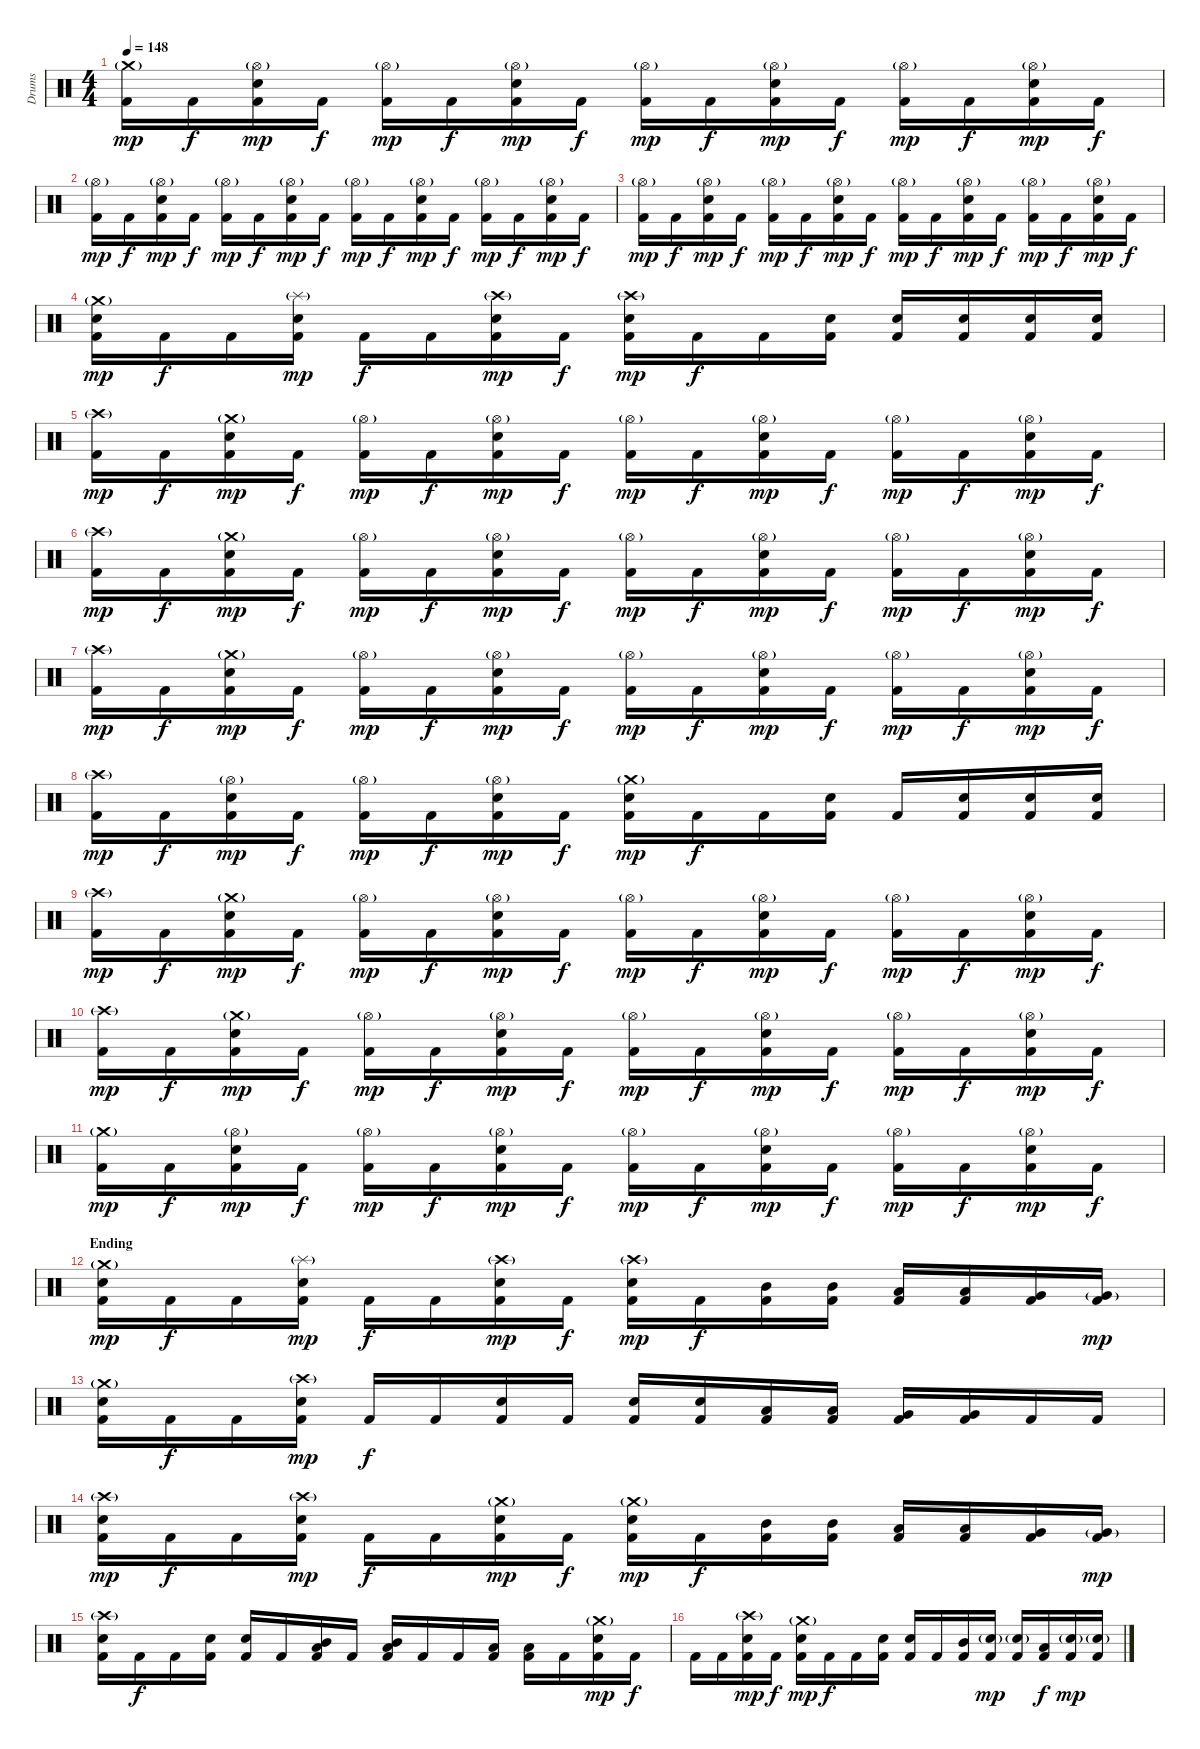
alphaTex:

\track ("Drums" "Drums") {instrument percussion}
\staff {score}
\articulation defaults
\ts (4 4)
\tempo 148
\clef neutral
\ks c
("Crash medium (hit)"{g} "Kick (hit) 2").16{dy mp} "Kick (hit) 2".16{dy f} ("Hi-Hat (open)"{g} "Snare (hit) 2" "Kick (hit) 2").16{dy mp} "Kick (hit) 2".16{dy f} ("Hi-Hat (open)"{g} "Kick (hit) 2").16{dy mp} "Kick (hit) 2".16{dy f} ("Hi-Hat (open)"{g} "Snare (hit) 2" "Kick (hit) 2").16{dy mp} "Kick (hit) 2".16{dy f} ("Hi-Hat (open)"{g} "Kick (hit) 2").16{dy mp} "Kick (hit) 2".16{dy f} ("Hi-Hat (open)"{g} "Snare (hit) 2" "Kick (hit) 2").16{dy mp} "Kick (hit) 2".16{dy f} ("Hi-Hat (open)"{g} "Kick (hit) 2").16{dy mp} "Kick (hit) 2".16{dy f} ("Hi-Hat (open)"{g} "Snare (hit) 2" "Kick (hit) 2").16{dy mp} "Kick (hit) 2".16{dy f} |
("Hi-Hat (open)"{g} "Kick (hit) 2").16{dy mp} "Kick (hit) 2".16{dy f} ("Hi-Hat (open)"{g} "Snare (hit) 2" "Kick (hit) 2").16{dy mp} "Kick (hit) 2".16{dy f} ("Hi-Hat (open)"{g} "Kick (hit) 2").16{dy mp} "Kick (hit) 2".16{dy f} ("Hi-Hat (open)"{g} "Snare (hit) 2" "Kick (hit) 2").16{dy mp} "Kick (hit) 2".16{dy f} ("Hi-Hat (open)"{g} "Kick (hit) 2").16{dy mp} "Kick (hit) 2".16{dy f} ("Hi-Hat (open)"{g} "Snare (hit) 2" "Kick (hit) 2").16{dy mp} "Kick (hit) 2".16{dy f} ("Hi-Hat (open)"{g} "Kick (hit) 2").16{dy mp} "Kick (hit) 2".16{dy f} ("Hi-Hat (open)"{g} "Snare (hit) 2" "Kick (hit) 2").16{dy mp} "Kick (hit) 2".16{dy f} |
("Hi-Hat (open)"{g} "Kick (hit) 2").16{dy mp} "Kick (hit) 2".16{dy f} ("Hi-Hat (open)"{g} "Snare (hit) 2" "Kick (hit) 2").16{dy mp} "Kick (hit) 2".16{dy f} ("Hi-Hat (open)"{g} "Kick (hit) 2").16{dy mp} "Kick (hit) 2".16{dy f} ("Hi-Hat (open)"{g} "Snare (hit) 2" "Kick (hit) 2").16{dy mp} "Kick (hit) 2".16{dy f} ("Hi-Hat (open)"{g} "Kick (hit) 2").16{dy mp} "Kick (hit) 2".16{dy f} ("Hi-Hat (open)"{g} "Snare (hit) 2" "Kick (hit) 2").16{dy mp} "Kick (hit) 2".16{dy f} ("Hi-Hat (open)"{g} "Kick (hit) 2").16{dy mp} "Kick (hit) 2".16{dy f} ("Hi-Hat (open)"{g} "Snare (hit) 2" "Kick (hit) 2").16{dy mp} "Kick (hit) 2".16{dy f} |
("Crash medium (hit)"{g} "Snare (hit) 2" "Kick (hit) 2").16{dy mp} "Kick (hit) 2".16{dy f} "Kick (hit) 2".16 ("Splash (hit)"{g} "Snare (hit) 2" "Kick (hit) 2").16{dy mp} "Kick (hit) 2".16{dy f} "Kick (hit) 2".16 ("Crash high (hit)"{g} "Snare (hit) 2" "Kick (hit) 2").16{dy mp} "Kick (hit) 2".16{dy f} ("Crash high (hit)"{g} "Snare (hit) 2" "Kick (hit) 2").16{dy mp} "Kick (hit) 2".16{dy f} "Kick (hit) 2".16 ("Snare (hit) 2" "Kick (hit) 2").16 ("Snare (hit) 2" "Kick (hit) 2").16 ("Snare (hit) 2" "Kick (hit) 2").16 ("Snare (hit) 2" "Kick (hit) 2").16 ("Snare (hit) 2" "Kick (hit) 2").16 |
("Crash high (hit)"{g} "Kick (hit) 2").16{dy mp} "Kick (hit) 2".16{dy f} ("Crash medium (hit)"{g} "Snare (hit) 2" "Kick (hit) 2").16{dy mp} "Kick (hit) 2".16{dy f} ("Hi-Hat (open)"{g} "Kick (hit) 2").16{dy mp} "Kick (hit) 2".16{dy f} ("Hi-Hat (open)"{g} "Snare (hit) 2" "Kick (hit) 2").16{dy mp} "Kick (hit) 2".16{dy f} ("Hi-Hat (open)"{g} "Kick (hit) 2").16{dy mp} "Kick (hit) 2".16{dy f} ("Hi-Hat (open)"{g} "Snare (hit) 2" "Kick (hit) 2").16{dy mp} "Kick (hit) 2".16{dy f} ("Hi-Hat (open)"{g} "Kick (hit) 2").16{dy mp} "Kick (hit) 2".16{dy f} ("Hi-Hat (open)"{g} "Snare (hit) 2" "Kick (hit) 2").16{dy mp} "Kick (hit) 2".16{dy f} |
("Crash high (hit)"{g} "Kick (hit) 2").16{dy mp} "Kick (hit) 2".16{dy f} ("Crash medium (hit)"{g} "Snare (hit) 2" "Kick (hit) 2").16{dy mp} "Kick (hit) 2".16{dy f} ("Hi-Hat (open)"{g} "Kick (hit) 2").16{dy mp} "Kick (hit) 2".16{dy f} ("Hi-Hat (open)"{g} "Snare (hit) 2" "Kick (hit) 2").16{dy mp} "Kick (hit) 2".16{dy f} ("Hi-Hat (open)"{g} "Kick (hit) 2").16{dy mp} "Kick (hit) 2".16{dy f} ("Hi-Hat (open)"{g} "Snare (hit) 2" "Kick (hit) 2").16{dy mp} "Kick (hit) 2".16{dy f} ("Hi-Hat (open)"{g} "Kick (hit) 2").16{dy mp} "Kick (hit) 2".16{dy f} ("Hi-Hat (open)"{g} "Snare (hit) 2" "Kick (hit) 2").16{dy mp} "Kick (hit) 2".16{dy f} |
("Crash high (hit)"{g} "Kick (hit) 2").16{dy mp} "Kick (hit) 2".16{dy f} ("Crash medium (hit)"{g} "Snare (hit) 2" "Kick (hit) 2").16{dy mp} "Kick (hit) 2".16{dy f} ("Hi-Hat (open)"{g} "Kick (hit) 2").16{dy mp} "Kick (hit) 2".16{dy f} ("Hi-Hat (open)"{g} "Snare (hit) 2" "Kick (hit) 2").16{dy mp} "Kick (hit) 2".16{dy f} ("Hi-Hat (open)"{g} "Kick (hit) 2").16{dy mp} "Kick (hit) 2".16{dy f} ("Hi-Hat (open)"{g} "Snare (hit) 2" "Kick (hit) 2").16{dy mp} "Kick (hit) 2".16{dy f} ("Hi-Hat (open)"{g} "Kick (hit) 2").16{dy mp} "Kick (hit) 2".16{dy f} ("Hi-Hat (open)"{g} "Snare (hit) 2" "Kick (hit) 2").16{dy mp} "Kick (hit) 2".16{dy f} |
("Crash high (hit)"{g} "Kick (hit) 2").16{dy mp} "Kick (hit) 2".16{dy f} ("Hi-Hat (open)"{g} "Snare (hit) 2" "Kick (hit) 2").16{dy mp} "Kick (hit) 2".16{dy f} ("Hi-Hat (open)"{g} "Kick (hit) 2").16{dy mp} "Kick (hit) 2".16{dy f} ("Hi-Hat (open)"{g} "Snare (hit) 2" "Kick (hit) 2").16{dy mp} "Kick (hit) 2".16{dy f} ("Crash medium (hit)"{g} "Snare (hit) 2" "Kick (hit) 2").16{dy mp} "Kick (hit) 2".16{dy f} "Kick (hit) 2".16 ("Snare (hit) 2" "Kick (hit) 2").16 "Kick (hit) 2".16 ("Snare (hit) 2" "Kick (hit) 2").16 ("Snare (hit) 2" "Kick (hit) 2").16 ("Snare (hit) 2" "Kick (hit) 2").16 |
("Crash high (hit)"{g} "Kick (hit) 2").16{dy mp} "Kick (hit) 2".16{dy f} ("Crash medium (hit)"{g} "Snare (hit) 2" "Kick (hit) 2").16{dy mp} "Kick (hit) 2".16{dy f} ("Hi-Hat (open)"{g} "Kick (hit) 2").16{dy mp} "Kick (hit) 2".16{dy f} ("Hi-Hat (open)"{g} "Snare (hit) 2" "Kick (hit) 2").16{dy mp} "Kick (hit) 2".16{dy f} ("Hi-Hat (open)"{g} "Kick (hit) 2").16{dy mp} "Kick (hit) 2".16{dy f} ("Hi-Hat (open)"{g} "Snare (hit) 2" "Kick (hit) 2").16{dy mp} "Kick (hit) 2".16{dy f} ("Hi-Hat (open)"{g} "Kick (hit) 2").16{dy mp} "Kick (hit) 2".16{dy f} ("Hi-Hat (open)"{g} "Snare (hit) 2" "Kick (hit) 2").16{dy mp} "Kick (hit) 2".16{dy f} |
("Crash high (hit)"{g} "Kick (hit) 2").16{dy mp} "Kick (hit) 2".16{dy f} ("Crash medium (hit)"{g} "Snare (hit) 2" "Kick (hit) 2").16{dy mp} "Kick (hit) 2".16{dy f} ("Hi-Hat (open)"{g} "Kick (hit) 2").16{dy mp} "Kick (hit) 2".16{dy f} ("Hi-Hat (open)"{g} "Snare (hit) 2" "Kick (hit) 2").16{dy mp} "Kick (hit) 2".16{dy f} ("Hi-Hat (open)"{g} "Kick (hit) 2").16{dy mp} "Kick (hit) 2".16{dy f} ("Hi-Hat (open)"{g} "Snare (hit) 2" "Kick (hit) 2").16{dy mp} "Kick (hit) 2".16{dy f} ("Hi-Hat (open)"{g} "Kick (hit) 2").16{dy mp} "Kick (hit) 2".16{dy f} ("Hi-Hat (open)"{g} "Snare (hit) 2" "Kick (hit) 2").16{dy mp} "Kick (hit) 2".16{dy f} |
("Crash medium (hit)"{g} "Kick (hit) 2").16{dy mp} "Kick (hit) 2".16{dy f} ("Hi-Hat (open)"{g} "Snare (hit) 2" "Kick (hit) 2").16{dy mp} "Kick (hit) 2".16{dy f} ("Hi-Hat (open)"{g} "Kick (hit) 2").16{dy mp} "Kick (hit) 2".16{dy f} ("Hi-Hat (open)"{g} "Snare (hit) 2" "Kick (hit) 2").16{dy mp} "Kick (hit) 2".16{dy f} ("Hi-Hat (open)"{g} "Kick (hit) 2").16{dy mp} "Kick (hit) 2".16{dy f} ("Hi-Hat (open)"{g} "Snare (hit) 2" "Kick (hit) 2").16{dy mp} "Kick (hit) 2".16{dy f} ("Hi-Hat (open)"{g} "Kick (hit) 2").16{dy mp} "Kick (hit) 2".16{dy f} ("Hi-Hat (open)"{g} "Snare (hit) 2" "Kick (hit) 2").16{dy mp} "Kick (hit) 2".16{dy f} |
\section ("" "Ending")
("Crash medium (hit)"{g} "Snare (hit) 2" "Kick (hit) 2").16{dy mp} "Kick (hit) 2".16{dy f} "Kick (hit) 2".16 ("Splash (hit)"{g} "Snare (hit) 2" "Kick (hit) 2").16{dy mp} "Kick (hit) 2".16{dy f} "Kick (hit) 2".16 ("Crash high (hit)"{g} "Snare (hit) 2" "Kick (hit) 2").16{dy mp} "Kick (hit) 2".16{dy f} ("Crash high (hit)"{g} "Snare (hit) 2" "Kick (hit) 2").16{dy mp} "Kick (hit) 2".16{dy f} ("Mid Tom (hit)" "Kick (hit) 2").16 ("Mid Tom (hit)" "Kick (hit) 2").16 ("Low Tom (hit)" "Kick (hit) 2").16 ("Low Tom (hit)" "Kick (hit) 2").16 ("Very Low Tom (hit)" "Kick (hit) 2").16 ("Very Low Tom (hit)"{g} "Kick (hit) 2").16{dy mp} |
("Crash medium (hit)"{g} "Snare (hit) 2" "Kick (hit) 2").16 "Kick (hit) 2".16{dy f} "Kick (hit) 2".16 ("Crash high (hit)"{g} "Snare (hit) 2" "Kick (hit) 2").16{dy mp} "Kick (hit) 2".16{dy f} "Kick (hit) 2".16 ("Snare (hit) 2" "Kick (hit) 2").16 "Kick (hit) 2".16 ("Snare (hit) 2" "Kick (hit) 2").16 ("Snare (hit) 2" "Kick (hit) 2").16 ("Low Tom (hit)" "Kick (hit) 2").16 ("Low Tom (hit)" "Kick (hit) 2").16 ("Very Low Tom (hit)" "Kick (hit) 2").16 ("Very Low Tom (hit)" "Kick (hit) 2").16 "Kick (hit) 2".16 "Kick (hit) 2".16 |
("Crash high (hit)"{g} "Snare (hit) 2" "Kick (hit) 2").16{dy mp} "Kick (hit) 2".16{dy f} "Kick (hit) 2".16 ("Crash high (hit)"{g} "Snare (hit) 2" "Kick (hit) 2").16{dy mp} "Kick (hit) 2".16{dy f} "Kick (hit) 2".16 ("Crash medium (hit)"{g} "Snare (hit) 2" "Kick (hit) 2").16{dy mp} "Kick (hit) 2".16{dy f} ("Crash medium (hit)"{g} "Snare (hit) 2" "Kick (hit) 2").16{dy mp} "Kick (hit) 2".16{dy f} ("Mid Tom (hit)" "Kick (hit) 2").16 ("Mid Tom (hit)" "Kick (hit) 2").16 ("Low Tom (hit)" "Kick (hit) 2").16 ("Low Tom (hit)" "Kick (hit) 2").16 ("Very Low Tom (hit)" "Kick (hit) 2").16 ("Very Low Tom (hit)"{g} "Kick (hit) 2").16{dy mp} |
("Crash high (hit)"{g} "Snare (hit) 2" "Kick (hit) 2").16 "Kick (hit) 2".16{dy f} "Kick (hit) 2".16 ("Snare (hit) 2" "Kick (hit) 2").16 ("Snare (hit) 2" "Kick (hit) 2").16 "Kick (hit) 2".16 ("Mid Tom (hit)" "Low Tom (hit)" "Kick (hit) 2").16 "Kick (hit) 2".16 ("Mid Tom (hit)" "Low Tom (hit)" "Kick (hit) 2").16 "Kick (hit) 2".16 "Kick (hit) 2".16 ("Low Tom (hit)" "Kick (hit) 2").16 ("Low Tom (hit)" "Kick (hit) 2").16 "Kick (hit) 2".16 ("Crash medium (hit)"{g} "Snare (hit) 2" "Kick (hit) 2").16{dy mp} "Kick (hit) 2".16{dy f} |
"Kick (hit) 2".16 "Kick (hit) 2".16 ("Crash high (hit)"{g} "Snare (hit) 2" "Kick (hit) 2").16{dy mp} "Kick (hit) 2".16{dy f} ("Crash medium (hit)"{g} "Snare (hit) 2" "Kick (hit) 2").16{dy mp} "Kick (hit) 2".16{dy f} "Kick (hit) 2".16 ("Snare (hit) 2" "Kick (hit) 2").16 ("Snare (hit) 2" "Kick (hit) 2").16 "Kick (hit) 2".16 ("Mid Tom (hit)" "Kick (hit) 2").16 ("Snare (hit) 2"{g} "Kick (hit) 2").16{dy mp} ("Snare (hit) 2"{g} "Kick (hit) 2").16 ("Low Tom (hit)" "Kick (hit) 2").16{dy f} ("Snare (hit) 2"{g} "Kick (hit) 2").16{dy mp} ("Snare (hit) 2"{g} "Kick (hit) 2").16
